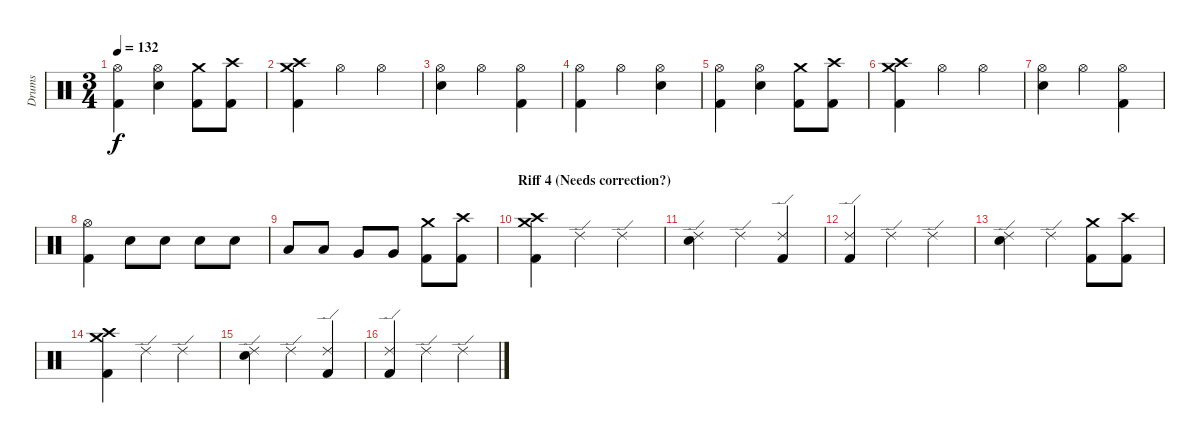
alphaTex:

\track ("Drums" "Drums") {instrument percussion}
\staff {score}
\articulation defaults
\ts (3 4)
\tempo 132
\clef neutral
\ks c
("Hi-Hat (open)" "Kick (hit) 2").4{dy f} ("Hi-Hat (open)" "Electric Snare (hit)").4 ("Crash medium (hit)" "Kick (hit) 2").8 ("Crash high (hit)" "Kick (hit) 2").8 |
("Crash high (hit)" "Crash medium (hit)" "Kick (hit) 2").4 "Hi-Hat (open)".4 "Hi-Hat (open)".4 |
("Hi-Hat (open)" "Electric Snare (hit)").4 "Hi-Hat (open)".4 ("Hi-Hat (open)" "Kick (hit) 2").4 |
("Hi-Hat (open)" "Kick (hit) 2").4 "Hi-Hat (open)".4 ("Hi-Hat (open)" "Electric Snare (hit)").4 |
("Hi-Hat (open)" "Kick (hit) 2").4 ("Hi-Hat (open)" "Electric Snare (hit)").4 ("Crash medium (hit)" "Kick (hit) 2").8 ("Crash high (hit)" "Kick (hit) 2").8 |
("Crash high (hit)" "Crash medium (hit)" "Kick (hit) 2").4 "Hi-Hat (open)".4 "Hi-Hat (open)".4 |
("Hi-Hat (open)" "Electric Snare (hit)").4 "Hi-Hat (open)".4 ("Hi-Hat (open)" "Kick (hit) 2").4 |
("Hi-Hat (open)" "Kick (hit) 2").4 "Electric Snare (hit)".8 "Electric Snare (hit)".8 "Electric Snare (hit)".8 "Electric Snare (hit)".8 |
"Low Tom (hit)".8 "Low Tom (hit)".8 "Very Low Tom (hit)".8 "Very Low Tom (hit)".8 ("Crash medium (hit)" "Kick (hit) 2").8 ("Crash high (hit)" "Kick (hit) 2").8 |
\section ("" "Riff 4 (Needs correction?)")
("Crash high (hit)" "Crash medium (hit)" "Kick (hit) 2").4 "Ride (edge) 2".4 "Ride (edge) 2".4 |
("Ride (edge) 2" "Electric Snare (hit)").4 "Ride (edge) 2".4 ("Ride (edge) 2" "Kick (hit) 2").4 |
("Ride (edge) 2" "Kick (hit) 2").4 "Ride (edge) 2".4 "Ride (edge) 2".4 |
("Ride (edge) 2" "Electric Snare (hit)").4 "Ride (edge) 2".4 ("Crash medium (hit)" "Kick (hit) 2").8 ("Crash high (hit)" "Kick (hit) 2").8 |
("Crash high (hit)" "Crash medium (hit)" "Kick (hit) 2").4 "Ride (edge) 2".4 "Ride (edge) 2".4 |
("Ride (edge) 2" "Electric Snare (hit)").4 "Ride (edge) 2".4 ("Ride (edge) 2" "Kick (hit) 2").4 |
("Ride (edge) 2" "Kick (hit) 2").4 "Ride (edge) 2".4 "Ride (edge) 2".4
